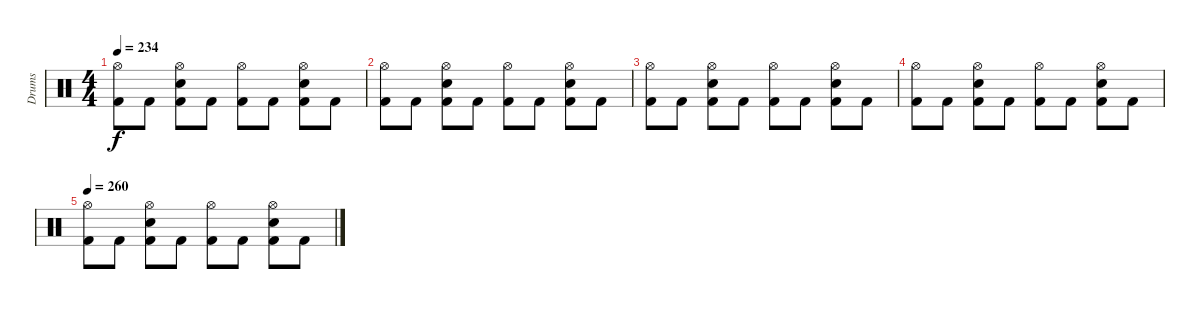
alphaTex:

\track ("Drums" "Drums") {instrument percussion}
\staff {score}
\articulation defaults
\ts (4 4)
\tempo 234
\clef neutral
\ks c
("Hi-Hat (open)" "Kick (hit) 2").8{dy f} "Kick (hit) 2".8 ("Hi-Hat (open)" "Snare (hit) 2" "Kick (hit) 2").8 "Kick (hit) 2".8 ("Hi-Hat (open)" "Kick (hit) 2").8 "Kick (hit) 2".8 ("Hi-Hat (open)" "Snare (hit) 2" "Kick (hit) 2").8 "Kick (hit) 2".8 |
("Hi-Hat (open)" "Kick (hit) 2").8 "Kick (hit) 2".8 ("Hi-Hat (open)" "Snare (hit) 2" "Kick (hit) 2").8 "Kick (hit) 2".8 ("Hi-Hat (open)" "Kick (hit) 2").8 "Kick (hit) 2".8 ("Hi-Hat (open)" "Snare (hit) 2" "Kick (hit) 2").8 "Kick (hit) 2".8 |
("Hi-Hat (open)" "Kick (hit) 2").8 "Kick (hit) 2".8 ("Hi-Hat (open)" "Snare (hit) 2" "Kick (hit) 2").8 "Kick (hit) 2".8 ("Hi-Hat (open)" "Kick (hit) 2").8 "Kick (hit) 2".8 ("Hi-Hat (open)" "Snare (hit) 2" "Kick (hit) 2").8 "Kick (hit) 2".8 |
("Hi-Hat (open)" "Kick (hit) 2").8 "Kick (hit) 2".8 ("Hi-Hat (open)" "Snare (hit) 2" "Kick (hit) 2").8 "Kick (hit) 2".8 ("Hi-Hat (open)" "Kick (hit) 2").8 "Kick (hit) 2".8 ("Hi-Hat (open)" "Snare (hit) 2" "Kick (hit) 2").8 "Kick (hit) 2".8 |
\tempo 260
("Hi-Hat (open)" "Kick (hit) 2").8 "Kick (hit) 2".8 ("Hi-Hat (open)" "Snare (hit) 2" "Kick (hit) 2").8 "Kick (hit) 2".8 ("Hi-Hat (open)" "Kick (hit) 2").8 "Kick (hit) 2".8 ("Hi-Hat (open)" "Snare (hit) 2" "Kick (hit) 2").8 "Kick (hit) 2".8
